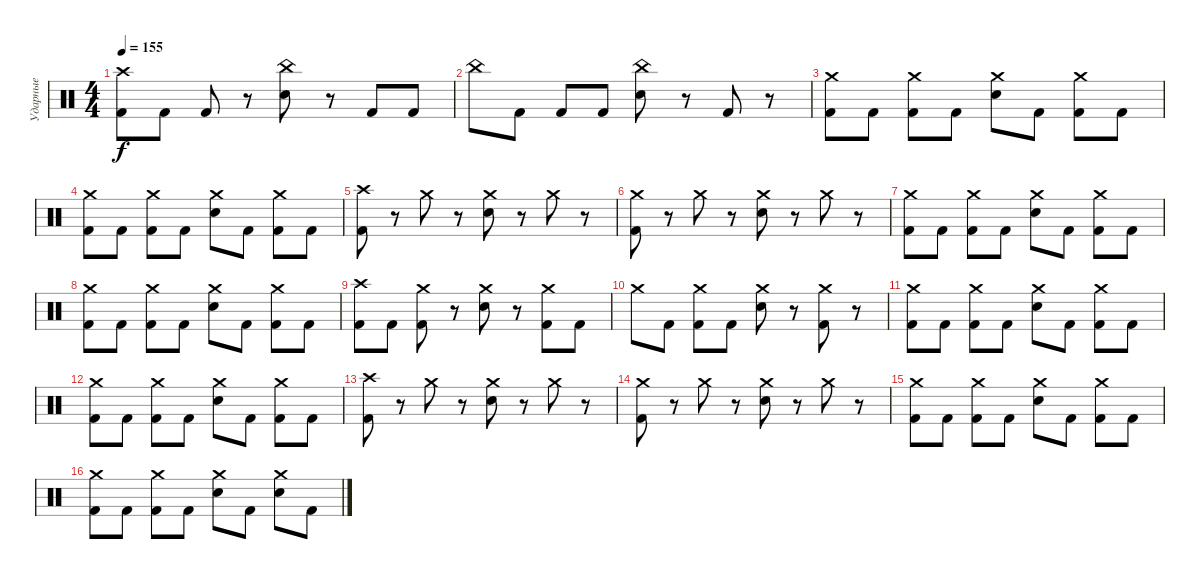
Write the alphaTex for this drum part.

\track ("Ударные" "Ударные") {instrument percussion}
\staff {score}
\articulation defaults
\ts (4 4)
\tempo 155
\clef neutral
\ks c
("Crash high (hit)" "Kick (hit) 2").8{dy f} "Kick (hit) 2".8 "Kick (hit) 2".8 r.8 ("China (hit)" "Electric Snare (hit)").8 r.8 "Kick (hit) 2".8 "Kick (hit) 2".8 |
"China (hit)".8 "Kick (hit) 2".8 "Kick (hit) 2".8 "Kick (hit) 2".8 ("China (hit)" "Electric Snare (hit)").8 r.8 "Kick (hit) 2".8 r.8 |
("Crash medium (hit)" "Kick (hit) 2").8 "Kick (hit) 2".8 ("Crash medium (hit)" "Kick (hit) 2").8 "Kick (hit) 2".8 ("Crash medium (hit)" "Electric Snare (hit)").8 "Kick (hit) 2".8 ("Crash medium (hit)" "Kick (hit) 2").8 "Kick (hit) 2".8 |
("Crash medium (hit)" "Kick (hit) 2").8 "Kick (hit) 2".8 ("Crash medium (hit)" "Kick (hit) 2").8 "Kick (hit) 2".8 ("Crash medium (hit)" "Electric Snare (hit)").8 "Kick (hit) 2".8 ("Crash medium (hit)" "Kick (hit) 2").8 "Kick (hit) 2".8 |
("Crash high (hit)" "Kick (hit) 2").8 r.8 "Crash medium (hit)".8 r.8 ("Crash medium (hit)" "Electric Snare (hit)").8 r.8 "Crash medium (hit)".8 r.8 |
("Crash medium (hit)" "Kick (hit) 2").8 r.8 "Crash medium (hit)".8 r.8 ("Crash medium (hit)" "Electric Snare (hit)").8 r.8 "Crash medium (hit)".8 r.8 |
("Crash medium (hit)" "Kick (hit) 2").8 "Kick (hit) 2".8 ("Crash medium (hit)" "Kick (hit) 2").8 "Kick (hit) 2".8 ("Crash medium (hit)" "Electric Snare (hit)").8 "Kick (hit) 2".8 ("Crash medium (hit)" "Kick (hit) 2").8 "Kick (hit) 2".8 |
("Crash medium (hit)" "Kick (hit) 2").8 "Kick (hit) 2".8 ("Crash medium (hit)" "Kick (hit) 2").8 "Kick (hit) 2".8 ("Crash medium (hit)" "Electric Snare (hit)").8 "Kick (hit) 2".8 ("Crash medium (hit)" "Kick (hit) 2").8 "Kick (hit) 2".8 |
("Crash high (hit)" "Kick (hit) 2").8 "Kick (hit) 2".8 ("Crash medium (hit)" "Kick (hit) 2").8 r.8 ("Crash medium (hit)" "Electric Snare (hit)").8 r.8 ("Crash medium (hit)" "Kick (hit) 2").8 "Kick (hit) 2".8 |
"Crash medium (hit)".8 "Kick (hit) 2".8 ("Crash medium (hit)" "Kick (hit) 2").8 "Kick (hit) 2".8 ("Crash medium (hit)" "Electric Snare (hit)").8 r.8 ("Crash medium (hit)" "Kick (hit) 2").8 r.8 |
("Crash medium (hit)" "Kick (hit) 2").8 "Kick (hit) 2".8 ("Crash medium (hit)" "Kick (hit) 2").8 "Kick (hit) 2".8 ("Crash medium (hit)" "Electric Snare (hit)").8 "Kick (hit) 2".8 ("Crash medium (hit)" "Kick (hit) 2").8 "Kick (hit) 2".8 |
("Crash medium (hit)" "Kick (hit) 2").8 "Kick (hit) 2".8 ("Crash medium (hit)" "Kick (hit) 2").8 "Kick (hit) 2".8 ("Crash medium (hit)" "Electric Snare (hit)").8 "Kick (hit) 2".8 ("Crash medium (hit)" "Kick (hit) 2").8 "Kick (hit) 2".8 |
("Crash high (hit)" "Kick (hit) 2").8 r.8 "Crash medium (hit)".8 r.8 ("Crash medium (hit)" "Electric Snare (hit)").8 r.8 "Crash medium (hit)".8 r.8 |
("Crash medium (hit)" "Kick (hit) 2").8 r.8 "Crash medium (hit)".8 r.8 ("Crash medium (hit)" "Electric Snare (hit)").8 r.8 "Crash medium (hit)".8 r.8 |
("Crash medium (hit)" "Kick (hit) 2").8 "Kick (hit) 2".8 ("Crash medium (hit)" "Kick (hit) 2").8 "Kick (hit) 2".8 ("Crash medium (hit)" "Electric Snare (hit)").8 "Kick (hit) 2".8 ("Crash medium (hit)" "Kick (hit) 2").8 "Kick (hit) 2".8 |
("Crash medium (hit)" "Kick (hit) 2").8 "Kick (hit) 2".8 ("Crash medium (hit)" "Kick (hit) 2").8 "Kick (hit) 2".8 ("Crash medium (hit)" "Electric Snare (hit)").8 "Kick (hit) 2".8 ("Crash medium (hit)" "Electric Snare (hit)").8 "Kick (hit) 2".8
